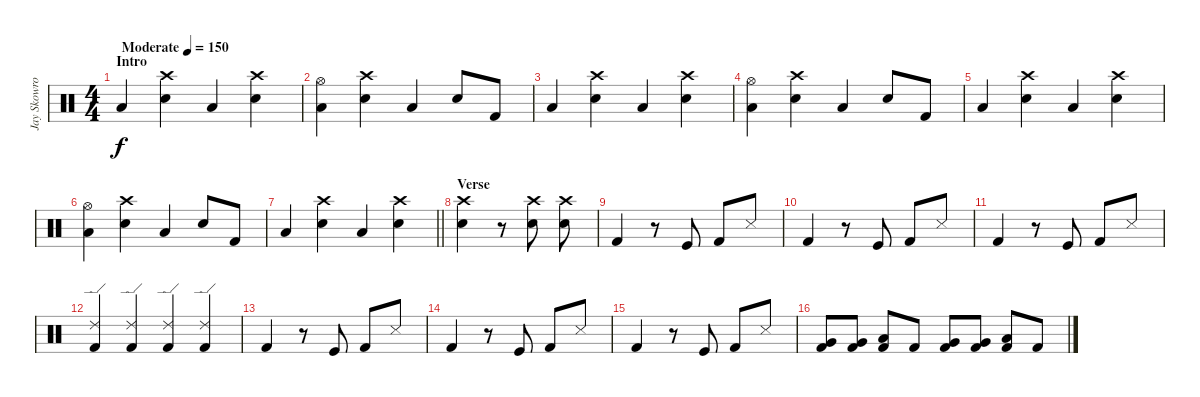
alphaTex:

\track ("Jay Skowronek (Drums)" "Jay Skowro") {instrument percussion}
\staff {score}
\articulation defaults
\ts (4 4)
\section ("" "Intro")
\tempo (150 "Moderate")
\clef neutral
\ks c "Low Floor Tom (hit)".4{dy f}
("Electric Snare (hit)" "Crash high (hit)").4 "Low Floor Tom (hit)".4 ("Electric Snare (hit)" "Crash high (hit)").4 |
("Low Floor Tom (hit)" "Hi-Hat (open)").4 ("Electric Snare (hit)" "Crash high (hit)").4 "Low Floor Tom (hit)".4 "Electric Snare (hit)".8 "Kick (hit) 2".8 |
"Low Floor Tom (hit)".4 ("Electric Snare (hit)" "Crash high (hit)").4 "Low Floor Tom (hit)".4 ("Electric Snare (hit)" "Crash high (hit)").4 |
("Low Floor Tom (hit)" "Hi-Hat (open)").4 ("Electric Snare (hit)" "Crash high (hit)").4 "Low Floor Tom (hit)".4 "Electric Snare (hit)".8 "Kick (hit) 2".8 |
"Low Floor Tom (hit)".4 ("Electric Snare (hit)" "Crash high (hit)").4 "Low Floor Tom (hit)".4 ("Electric Snare (hit)" "Crash high (hit)").4 |
("Low Floor Tom (hit)" "Hi-Hat (open)").4 ("Electric Snare (hit)" "Crash high (hit)").4 "Low Floor Tom (hit)".4 "Electric Snare (hit)".8 "Kick (hit) 2".8 |
\barLineRight lightlight "Low Floor Tom (hit)".4
("Electric Snare (hit)" "Crash high (hit)").4 "Low Floor Tom (hit)".4 ("Electric Snare (hit)" "Crash high (hit)").4 |
\section ("" "Verse")
("Electric Snare (hit)" "Crash high (hit)").4 r.8 ("Electric Snare (hit)" "Crash high (hit)").8 ("Electric Snare (hit)" "Crash high (hit)").8 |
"Kick (hit) 2".4 r.8 "Kick (hit)".8 "Kick (hit) 2".8 "Snare (side stick) 3".8 |
"Kick (hit) 2".4 r.8 "Kick (hit)".8 "Kick (hit) 2".8 "Snare (side stick) 3".8 |
"Kick (hit) 2".4 r.8 "Kick (hit)".8 "Kick (hit) 2".8 "Snare (side stick) 3".8 |
("Ride (edge) 2" "Kick (hit) 2").4 ("Ride (edge) 2" "Kick (hit) 2").4 ("Ride (edge) 2" "Kick (hit) 2").4 ("Ride (edge) 2" "Kick (hit) 2").4 |
"Kick (hit) 2".4 r.8 "Kick (hit)".8 "Kick (hit) 2".8 "Snare (side stick) 3".8 |
"Kick (hit) 2".4 r.8 "Kick (hit)".8 "Kick (hit) 2".8 "Snare (side stick) 3".8 |
"Kick (hit) 2".4 r.8 "Kick (hit)".8 "Kick (hit) 2".8 "Snare (side stick) 3".8 |
("Very Low Tom (hit)" "Kick (hit) 2").8 ("Very Low Tom (hit)" "Kick (hit) 2").8 ("Low Floor Tom (hit)" "Kick (hit) 2").8 "Kick (hit) 2".8 ("Very Low Tom (hit)" "Kick (hit) 2").8 ("Very Low Tom (hit)" "Kick (hit) 2").8 ("Low Floor Tom (hit)" "Kick (hit) 2").8 "Kick (hit) 2".8
